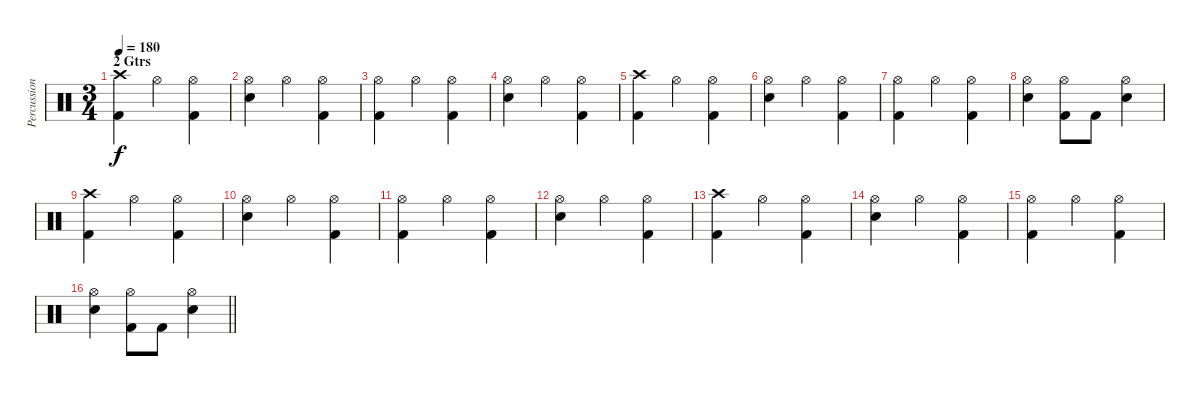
\track ("Percussions" "Percussion") {instrument percussion}
\staff {score}
\articulation defaults
\ts (3 4)
\section ("" "2 Gtrs")
\tempo 180
\clef neutral
\ks c
("Crash high (hit)" "Kick (hit) 2").4{dy f} "Hi-Hat (open)".4 ("Hi-Hat (open)" "Kick (hit) 2").4 |
("Hi-Hat (open)" "Snare (hit) 2").4 "Hi-Hat (open)".4 ("Hi-Hat (open)" "Kick (hit) 2").4 |
("Hi-Hat (open)" "Kick (hit) 2").4 "Hi-Hat (open)".4 ("Hi-Hat (open)" "Kick (hit) 2").4 |
("Hi-Hat (open)" "Snare (hit) 2").4 "Hi-Hat (open)".4 ("Hi-Hat (open)" "Kick (hit) 2").4 |
("Crash high (hit)" "Kick (hit) 2").4 "Hi-Hat (open)".4 ("Hi-Hat (open)" "Kick (hit) 2").4 |
("Hi-Hat (open)" "Snare (hit) 2").4 "Hi-Hat (open)".4 ("Hi-Hat (open)" "Kick (hit) 2").4 |
("Hi-Hat (open)" "Kick (hit) 2").4 "Hi-Hat (open)".4 ("Hi-Hat (open)" "Kick (hit) 2").4 |
("Hi-Hat (open)" "Snare (hit) 2").4 ("Hi-Hat (open)" "Kick (hit) 2").8 "Kick (hit) 2".8 ("Hi-Hat (open)" "Snare (hit) 2").4 |
("Crash high (hit)" "Kick (hit) 2").4 "Hi-Hat (open)".4 ("Hi-Hat (open)" "Kick (hit) 2").4 |
("Hi-Hat (open)" "Snare (hit) 2").4 "Hi-Hat (open)".4 ("Hi-Hat (open)" "Kick (hit) 2").4 |
("Hi-Hat (open)" "Kick (hit) 2").4 "Hi-Hat (open)".4 ("Hi-Hat (open)" "Kick (hit) 2").4 |
("Hi-Hat (open)" "Snare (hit) 2").4 "Hi-Hat (open)".4 ("Hi-Hat (open)" "Kick (hit) 2").4 |
("Crash high (hit)" "Kick (hit) 2").4 "Hi-Hat (open)".4 ("Hi-Hat (open)" "Kick (hit) 2").4 |
("Hi-Hat (open)" "Snare (hit) 2").4 "Hi-Hat (open)".4 ("Hi-Hat (open)" "Kick (hit) 2").4 |
("Hi-Hat (open)" "Kick (hit) 2").4 "Hi-Hat (open)".4 ("Hi-Hat (open)" "Kick (hit) 2").4 |
\barLineRight lightlight
("Hi-Hat (open)" "Snare (hit) 2").4 ("Hi-Hat (open)" "Kick (hit) 2").8 "Kick (hit) 2".8 ("Hi-Hat (open)" "Snare (hit) 2").4
